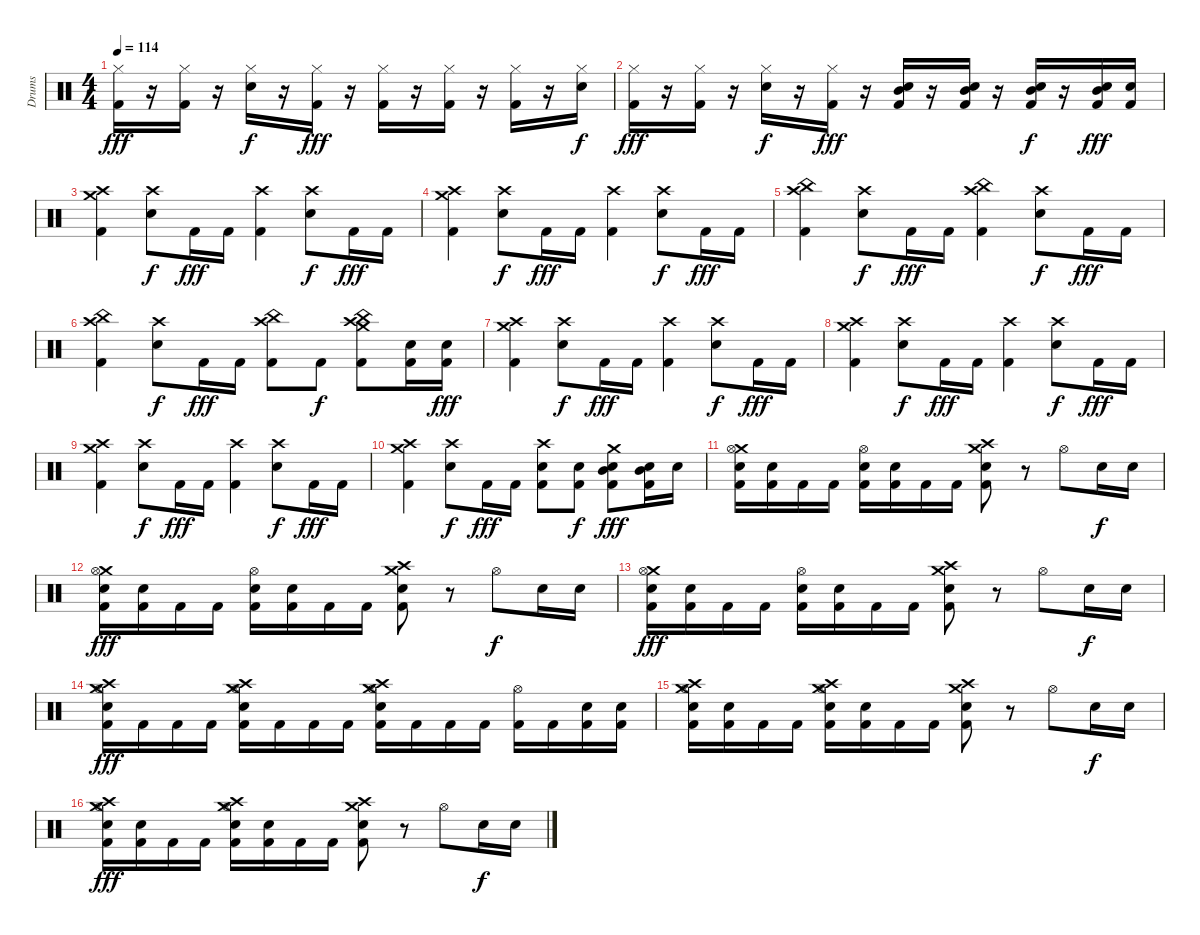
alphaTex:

\track ("Drums" "Drums") {instrument percussion}
\staff {score}
\articulation defaults
\ts (4 4)
\tempo 114
\clef neutral
\ks c
("Hi-Hat (closed)" "Kick (hit) 2").16{dy fff} r.16 ("Hi-Hat (closed)" "Kick (hit) 2").16 r.16 ("Hi-Hat (closed)" "Snare (hit) 2").16{dy f} r.16 ("Hi-Hat (closed)" "Kick (hit) 2").16{dy fff} r.16 ("Hi-Hat (closed)" "Kick (hit) 2").16 r.16 ("Hi-Hat (closed)" "Kick (hit) 2").16 r.16 ("Hi-Hat (closed)" "Kick (hit) 2").16 r.16 ("Hi-Hat (closed)" "Snare (hit) 2").16{dy f} |
("Hi-Hat (closed)" "Kick (hit) 2").16{dy fff} r.16 ("Hi-Hat (closed)" "Kick (hit) 2").16 r.16 ("Hi-Hat (closed)" "Snare (hit) 2").16{dy f} r.16 ("Hi-Hat (closed)" "Kick (hit) 2").16{dy fff} r.16 ("Mid Tom (hit)" "Kick (hit) 2" "Snare (hit) 2").16 r.16 ("Mid Tom (hit)" "Kick (hit) 2" "Snare (hit) 2").16 r.16 ("Mid Tom (hit)" "Kick (hit) 2" "Snare (hit) 2").16{dy f} r.16 ("Mid Tom (hit)" "Kick (hit) 2" "Snare (hit) 2").16{dy fff} ("Kick (hit) 2" "Snare (hit) 2").16 |
("Crash high (hit)" "Crash medium (hit)" "Kick (hit) 2").4 ("Crash high (hit)" "Snare (hit) 2").8{dy f} "Kick (hit) 2".16{dy fff} "Kick (hit) 2".16 ("Crash high (hit)" "Kick (hit) 2").4 ("Crash high (hit)" "Snare (hit) 2").8{dy f} "Kick (hit) 2".16{dy fff} "Kick (hit) 2".16 |
("Crash high (hit)" "Crash medium (hit)" "Kick (hit) 2").4 ("Crash high (hit)" "Snare (hit) 2").8{dy f} "Kick (hit) 2".16{dy fff} "Kick (hit) 2".16 ("Crash high (hit)" "Kick (hit) 2").4 ("Crash high (hit)" "Snare (hit) 2").8{dy f} "Kick (hit) 2".16{dy fff} "Kick (hit) 2".16 |
("Crash high (hit)" "China (hit)" "Kick (hit) 2").4 ("Crash high (hit)" "Snare (hit) 2").8{dy f} "Kick (hit) 2".16{dy fff} "Kick (hit) 2".16 ("Crash high (hit)" "China (hit)" "Kick (hit) 2").4 ("Crash high (hit)" "Snare (hit) 2").8{dy f} "Kick (hit) 2".16{dy fff} "Kick (hit) 2".16 |
("Crash high (hit)" "China (hit)" "Kick (hit) 2").4 ("Crash high (hit)" "Snare (hit) 2").8{dy f} "Kick (hit) 2".16{dy fff} "Kick (hit) 2".16 ("Crash high (hit)" "China (hit)" "Kick (hit) 2").8 "Kick (hit) 2".8{dy f} ("Crash high (hit)" "Crash medium (hit)" "Kick (hit) 2" "China (hit)").8 ("Kick (hit) 2" "Snare (hit) 2").16 ("Kick (hit) 2" "Snare (hit) 2").16{dy fff} |
("Crash high (hit)" "Crash medium (hit)" "Kick (hit) 2").4 ("Crash high (hit)" "Snare (hit) 2").8{dy f} "Kick (hit) 2".16{dy fff} "Kick (hit) 2".16 ("Crash high (hit)" "Kick (hit) 2").4 ("Crash high (hit)" "Snare (hit) 2").8{dy f} "Kick (hit) 2".16{dy fff} "Kick (hit) 2".16 |
("Crash high (hit)" "Crash medium (hit)" "Kick (hit) 2").4 ("Crash high (hit)" "Snare (hit) 2").8{dy f} "Kick (hit) 2".16{dy fff} "Kick (hit) 2".16 ("Crash high (hit)" "Kick (hit) 2").4 ("Crash high (hit)" "Snare (hit) 2").8{dy f} "Kick (hit) 2".16{dy fff} "Kick (hit) 2".16 |
("Crash high (hit)" "Crash medium (hit)" "Kick (hit) 2").4 ("Crash high (hit)" "Snare (hit) 2").8{dy f} "Kick (hit) 2".16{dy fff} "Kick (hit) 2".16 ("Crash high (hit)" "Kick (hit) 2").4 ("Crash high (hit)" "Snare (hit) 2").8{dy f} "Kick (hit) 2".16{dy fff} "Kick (hit) 2".16 |
("Crash high (hit)" "Crash medium (hit)" "Kick (hit) 2").4 ("Crash high (hit)" "Snare (hit) 2").8{dy f} "Kick (hit) 2".16{dy fff} "Kick (hit) 2".16 ("Crash high (hit)" "Kick (hit) 2" "Snare (hit) 2").8 ("Kick (hit) 2" "Snare (hit) 2").8{dy f} ("Crash medium (hit)" "Mid Tom (hit)" "Kick (hit) 2" "Snare (hit) 2").8{dy fff} ("Mid Tom (hit)" "Kick (hit) 2" "Snare (hit) 2").16 "Snare (hit) 2".16 |
("Crash medium (hit)" "Hi-Hat (open)" "Snare (hit) 2" "Kick (hit) 2").16 ("Snare (hit) 2" "Kick (hit) 2").16 "Kick (hit) 2".16 "Kick (hit) 2".16 ("Hi-Hat (open)" "Snare (hit) 2" "Kick (hit) 2").16 ("Snare (hit) 2" "Kick (hit) 2").16 "Kick (hit) 2".16 "Kick (hit) 2".16 ("Crash medium (hit)" "Crash high (hit)" "Snare (hit) 2" "Kick (hit) 2").8 r.8 "Hi-Hat (open)".8 "Snare (hit) 2".16{dy f} "Snare (hit) 2".16 |
("Crash medium (hit)" "Hi-Hat (open)" "Snare (hit) 2" "Kick (hit) 2").16{dy fff} ("Snare (hit) 2" "Kick (hit) 2").16 "Kick (hit) 2".16 "Kick (hit) 2".16 ("Hi-Hat (open)" "Snare (hit) 2" "Kick (hit) 2").16 ("Snare (hit) 2" "Kick (hit) 2").16 "Kick (hit) 2".16 "Kick (hit) 2".16 ("Crash medium (hit)" "Crash high (hit)" "Snare (hit) 2" "Kick (hit) 2").8 r.8 "Hi-Hat (open)".8{dy f} "Snare (hit) 2".16 "Snare (hit) 2".16 |
("Crash medium (hit)" "Hi-Hat (open)" "Snare (hit) 2" "Kick (hit) 2").16{dy fff} ("Snare (hit) 2" "Kick (hit) 2").16 "Kick (hit) 2".16 "Kick (hit) 2".16 ("Hi-Hat (open)" "Snare (hit) 2" "Kick (hit) 2").16 ("Snare (hit) 2" "Kick (hit) 2").16 "Kick (hit) 2".16 "Kick (hit) 2".16 ("Crash medium (hit)" "Crash high (hit)" "Snare (hit) 2" "Kick (hit) 2").8 r.8 "Hi-Hat (open)".8 "Snare (hit) 2".16{dy f} "Snare (hit) 2".16 |
("Crash medium (hit)" "Crash high (hit)" "Hi-Hat (open)" "Snare (hit) 2" "Kick (hit) 2").16{dy fff} "Kick (hit) 2".16 "Kick (hit) 2".16 "Kick (hit) 2".16 ("Crash medium (hit)" "Crash high (hit)" "Hi-Hat (open)" "Snare (hit) 2" "Kick (hit) 2").16 "Kick (hit) 2".16 "Kick (hit) 2".16 "Kick (hit) 2".16 ("Crash medium (hit)" "Crash high (hit)" "Hi-Hat (open)" "Snare (hit) 2" "Kick (hit) 2").16 "Kick (hit) 2".16 "Kick (hit) 2".16 "Kick (hit) 2".16 ("Hi-Hat (open)" "Kick (hit) 2").16 "Kick (hit) 2".16 ("Snare (hit) 2" "Kick (hit) 2").16 ("Snare (hit) 2" "Kick (hit) 2").16 |
("Crash high (hit)" "Crash medium (hit)" "Hi-Hat (open)" "Snare (hit) 2" "Kick (hit) 2").16 ("Snare (hit) 2" "Kick (hit) 2").16 "Kick (hit) 2".16 "Kick (hit) 2".16 ("Crash medium (hit)" "Crash high (hit)" "Hi-Hat (open)" "Snare (hit) 2" "Kick (hit) 2").16 ("Snare (hit) 2" "Kick (hit) 2").16 "Kick (hit) 2".16 "Kick (hit) 2".16 ("Crash medium (hit)" "Crash high (hit)" "Snare (hit) 2" "Kick (hit) 2").8 r.8 "Hi-Hat (open)".8 "Snare (hit) 2".16{dy f} "Snare (hit) 2".16 |
("Crash medium (hit)" "Crash high (hit)" "Hi-Hat (open)" "Snare (hit) 2" "Kick (hit) 2").16{dy fff} ("Snare (hit) 2" "Kick (hit) 2").16 "Kick (hit) 2".16 "Kick (hit) 2".16 ("Crash medium (hit)" "Crash high (hit)" "Hi-Hat (open)" "Snare (hit) 2" "Kick (hit) 2").16 ("Snare (hit) 2" "Kick (hit) 2").16 "Kick (hit) 2".16 "Kick (hit) 2".16 ("Crash medium (hit)" "Crash high (hit)" "Snare (hit) 2" "Kick (hit) 2").8 r.8 "Hi-Hat (open)".8 "Snare (hit) 2".16{dy f} "Snare (hit) 2".16
